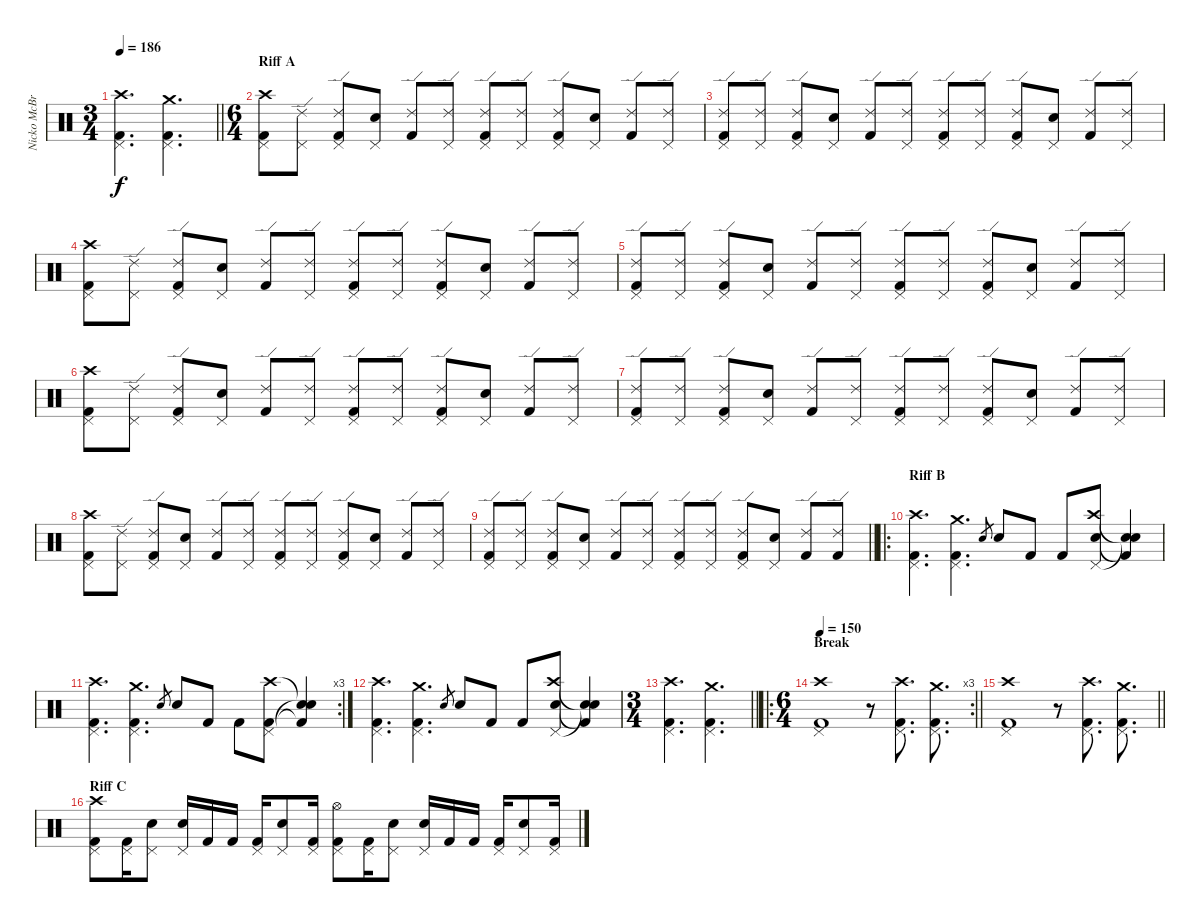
\track ("Nicko McBrain" "Nicko McBr") {instrument percussion}
\staff {score}
\articulation defaults
\ts (3 4)
\tempo 186
\clef neutral
\barLineRight lightlight
\ks c
("Kick (hit) 2" "Pedal Hi-Hat (hit)" "Crash high (hit)").4{d dy f} ("Kick (hit) 2" "Pedal Hi-Hat (hit)" "Crash medium (hit)").4{d} |
\ts (6 4)
\section ("" "Riff A")
("Kick (hit) 2" "Pedal Hi-Hat (hit)" "Crash high (hit)").8 ("Pedal Hi-Hat (hit)" "Ride (edge) 2").8 ("Kick (hit) 2" "Pedal Hi-Hat (hit)" "Ride (edge) 2").8 ("Snare (hit) 2" "Pedal Hi-Hat (hit)").8 ("Kick (hit) 2" "Ride (edge) 2").8 ("Pedal Hi-Hat (hit)" "Ride (edge) 2").8 ("Kick (hit) 2" "Pedal Hi-Hat (hit)" "Ride (edge) 2").8 ("Pedal Hi-Hat (hit)" "Ride (edge) 2").8 ("Kick (hit) 2" "Pedal Hi-Hat (hit)" "Ride (edge) 2").8 ("Snare (hit) 2" "Pedal Hi-Hat (hit)").8 ("Kick (hit) 2" "Ride (edge) 2").8 ("Pedal Hi-Hat (hit)" "Ride (edge) 2").8 |
("Kick (hit) 2" "Pedal Hi-Hat (hit)" "Ride (edge) 2").8 ("Pedal Hi-Hat (hit)" "Ride (edge) 2").8 ("Kick (hit) 2" "Pedal Hi-Hat (hit)" "Ride (edge) 2").8 ("Snare (hit) 2" "Pedal Hi-Hat (hit)").8 ("Kick (hit) 2" "Ride (edge) 2").8 ("Pedal Hi-Hat (hit)" "Ride (edge) 2").8 ("Kick (hit) 2" "Pedal Hi-Hat (hit)" "Ride (edge) 2").8 ("Pedal Hi-Hat (hit)" "Ride (edge) 2").8 ("Kick (hit) 2" "Pedal Hi-Hat (hit)" "Ride (edge) 2").8 ("Snare (hit) 2" "Pedal Hi-Hat (hit)").8 ("Kick (hit) 2" "Ride (edge) 2").8 ("Pedal Hi-Hat (hit)" "Ride (edge) 2").8 |
("Kick (hit) 2" "Pedal Hi-Hat (hit)" "Crash high (hit)").8 ("Pedal Hi-Hat (hit)" "Ride (edge) 2").8 ("Kick (hit) 2" "Pedal Hi-Hat (hit)" "Ride (edge) 2").8 ("Snare (hit) 2" "Pedal Hi-Hat (hit)").8 ("Kick (hit) 2" "Ride (edge) 2").8 ("Pedal Hi-Hat (hit)" "Ride (edge) 2").8 ("Kick (hit) 2" "Pedal Hi-Hat (hit)" "Ride (edge) 2").8 ("Pedal Hi-Hat (hit)" "Ride (edge) 2").8 ("Kick (hit) 2" "Pedal Hi-Hat (hit)" "Ride (edge) 2").8 ("Snare (hit) 2" "Pedal Hi-Hat (hit)").8 ("Kick (hit) 2" "Ride (edge) 2").8 ("Pedal Hi-Hat (hit)" "Ride (edge) 2").8 |
("Kick (hit) 2" "Pedal Hi-Hat (hit)" "Ride (edge) 2").8 ("Pedal Hi-Hat (hit)" "Ride (edge) 2").8 ("Kick (hit) 2" "Pedal Hi-Hat (hit)" "Ride (edge) 2").8 ("Snare (hit) 2" "Pedal Hi-Hat (hit)").8 ("Kick (hit) 2" "Ride (edge) 2").8 ("Pedal Hi-Hat (hit)" "Ride (edge) 2").8 ("Kick (hit) 2" "Pedal Hi-Hat (hit)" "Ride (edge) 2").8 ("Pedal Hi-Hat (hit)" "Ride (edge) 2").8 ("Kick (hit) 2" "Pedal Hi-Hat (hit)" "Ride (edge) 2").8 ("Snare (hit) 2" "Pedal Hi-Hat (hit)").8 ("Kick (hit) 2" "Ride (edge) 2").8 ("Pedal Hi-Hat (hit)" "Ride (edge) 2").8 |
("Kick (hit) 2" "Pedal Hi-Hat (hit)" "Crash high (hit)").8 ("Pedal Hi-Hat (hit)" "Ride (edge) 2").8 ("Kick (hit) 2" "Pedal Hi-Hat (hit)" "Ride (edge) 2").8 ("Snare (hit) 2" "Pedal Hi-Hat (hit)").8 ("Kick (hit) 2" "Ride (edge) 2").8 ("Pedal Hi-Hat (hit)" "Ride (edge) 2").8 ("Kick (hit) 2" "Pedal Hi-Hat (hit)" "Ride (edge) 2").8 ("Pedal Hi-Hat (hit)" "Ride (edge) 2").8 ("Kick (hit) 2" "Pedal Hi-Hat (hit)" "Ride (edge) 2").8 ("Snare (hit) 2" "Pedal Hi-Hat (hit)").8 ("Kick (hit) 2" "Ride (edge) 2").8 ("Pedal Hi-Hat (hit)" "Ride (edge) 2").8 |
("Kick (hit) 2" "Pedal Hi-Hat (hit)" "Ride (edge) 2").8 ("Pedal Hi-Hat (hit)" "Ride (edge) 2").8 ("Kick (hit) 2" "Pedal Hi-Hat (hit)" "Ride (edge) 2").8 ("Snare (hit) 2" "Pedal Hi-Hat (hit)").8 ("Kick (hit) 2" "Ride (edge) 2").8 ("Pedal Hi-Hat (hit)" "Ride (edge) 2").8 ("Kick (hit) 2" "Pedal Hi-Hat (hit)" "Ride (edge) 2").8 ("Pedal Hi-Hat (hit)" "Ride (edge) 2").8 ("Kick (hit) 2" "Pedal Hi-Hat (hit)" "Ride (edge) 2").8 ("Snare (hit) 2" "Pedal Hi-Hat (hit)").8 ("Kick (hit) 2" "Ride (edge) 2").8 ("Pedal Hi-Hat (hit)" "Ride (edge) 2").8 |
("Kick (hit) 2" "Pedal Hi-Hat (hit)" "Crash high (hit)").8 ("Pedal Hi-Hat (hit)" "Ride (edge) 2").8 ("Kick (hit) 2" "Pedal Hi-Hat (hit)" "Ride (edge) 2").8 ("Snare (hit) 2" "Pedal Hi-Hat (hit)").8 ("Kick (hit) 2" "Ride (edge) 2").8 ("Pedal Hi-Hat (hit)" "Ride (edge) 2").8 ("Kick (hit) 2" "Pedal Hi-Hat (hit)" "Ride (edge) 2").8 ("Pedal Hi-Hat (hit)" "Ride (edge) 2").8 ("Kick (hit) 2" "Pedal Hi-Hat (hit)" "Ride (edge) 2").8 ("Snare (hit) 2" "Pedal Hi-Hat (hit)").8 ("Kick (hit) 2" "Ride (edge) 2").8 ("Pedal Hi-Hat (hit)" "Ride (edge) 2").8 |
\barLineRight lightlight
("Kick (hit) 2" "Pedal Hi-Hat (hit)" "Ride (edge) 2").8 ("Pedal Hi-Hat (hit)" "Ride (edge) 2").8 ("Kick (hit) 2" "Pedal Hi-Hat (hit)" "Ride (edge) 2").8 ("Snare (hit) 2" "Pedal Hi-Hat (hit)").8 ("Kick (hit) 2" "Ride (edge) 2").8 ("Pedal Hi-Hat (hit)" "Ride (edge) 2").8 ("Kick (hit) 2" "Pedal Hi-Hat (hit)" "Ride (edge) 2").8 ("Pedal Hi-Hat (hit)" "Ride (edge) 2").8 ("Kick (hit) 2" "Pedal Hi-Hat (hit)" "Ride (edge) 2").8 ("Snare (hit) 2" "Pedal Hi-Hat (hit)").8 ("Kick (hit) 2" "Ride (edge) 2").8 ("Kick (hit) 2" "Ride (edge) 2").8 |
\ro
\section ("" "Riff B")
("Kick (hit) 2" "Pedal Hi-Hat (hit)" "Crash high (hit)").4{d} ("Kick (hit) 2" "Pedal Hi-Hat (hit)" "Crash medium (hit)").4{d} "Snare (hit) 2".8{gr} "Snare (hit) 2".8 "Kick (hit) 2".8 "Kick (hit) 2".8 ("Snare (hit) 2" "Pedal Hi-Hat (hit)" "Crash high (hit)").8 ("Kick (hit) 2"{t} "Snare (hit)"{t} "Snare (hit)"{t}).4 |
\rc 3
("Kick (hit) 2" "Pedal Hi-Hat (hit)" "Crash high (hit)").4{d} ("Kick (hit) 2" "Pedal Hi-Hat (hit)" "Crash medium (hit)").4{d} "Snare (hit) 2".8{gr} "Snare (hit) 2".8 "Kick (hit) 2".8 "Kick (hit) 2".8 ("Kick (hit) 2" "Pedal Hi-Hat (hit)" "Crash high (hit)").8 ("Kick (hit) 2"{t} "Snare (hit)"{t} "Snare (hit)"{t}).4 |
("Kick (hit) 2" "Pedal Hi-Hat (hit)" "Crash high (hit)").4{d} ("Kick (hit) 2" "Pedal Hi-Hat (hit)" "Crash medium (hit)").4{d} "Snare (hit) 2".8{gr} "Snare (hit) 2".8 "Kick (hit) 2".8 "Kick (hit) 2".8 ("Snare (hit) 2" "Pedal Hi-Hat (hit)" "Crash high (hit)").8 ("Kick (hit) 2"{t} "Snare (hit)"{t} "Snare (hit)"{t}).4 |
\ts (3 4)
\barLineRight lightlight
("Kick (hit) 2" "Pedal Hi-Hat (hit)" "Crash high (hit)").4{d} ("Kick (hit) 2" "Pedal Hi-Hat (hit)" "Crash medium (hit)").4{d} |
\ro
\rc 3
\ts (6 4)
\section ("" "Break")
\tempo 150
\barLineRight lightlight
("Kick (hit) 2" "Pedal Hi-Hat (hit)" "Crash high (hit)").1 r.8 ("Kick (hit) 2" "Pedal Hi-Hat (hit)" "Crash high (hit)").8{d} ("Kick (hit) 2" "Pedal Hi-Hat (hit)" "Crash medium (hit)").8{d} |
\barLineRight lightlight
("Kick (hit) 2" "Pedal Hi-Hat (hit)" "Crash high (hit)").1 r.8 ("Kick (hit) 2" "Pedal Hi-Hat (hit)" "Crash high (hit)").8{d} ("Kick (hit) 2" "Pedal Hi-Hat (hit)" "Crash medium (hit)").8{d} |
\section ("" "Riff C")
("Kick (hit) 2" "Pedal Hi-Hat (hit)" "Crash high (hit)").8 ("Kick (hit) 2" "Pedal Hi-Hat (hit)").16 ("Snare (hit) 2" "Pedal Hi-Hat (hit)").8 ("Snare (hit) 2" "Pedal Hi-Hat (hit)").16 "Kick (hit) 2".16 "Kick (hit) 2".16 ("Kick (hit) 2" "Pedal Hi-Hat (hit)").16 ("Snare (hit) 2" "Pedal Hi-Hat (hit)").8 ("Kick (hit) 2" "Pedal Hi-Hat (hit)").16 ("Kick (hit) 2" "Pedal Hi-Hat (hit)" "Hi-Hat (open)").8 ("Kick (hit) 2" "Pedal Hi-Hat (hit)").16 ("Snare (hit) 2" "Pedal Hi-Hat (hit)").8 ("Snare (hit) 2" "Pedal Hi-Hat (hit)").16 "Kick (hit) 2".16 "Kick (hit) 2".16 ("Kick (hit) 2" "Pedal Hi-Hat (hit)").16 ("Snare (hit) 2" "Pedal Hi-Hat (hit)").8 ("Kick (hit) 2" "Pedal Hi-Hat (hit)").16
